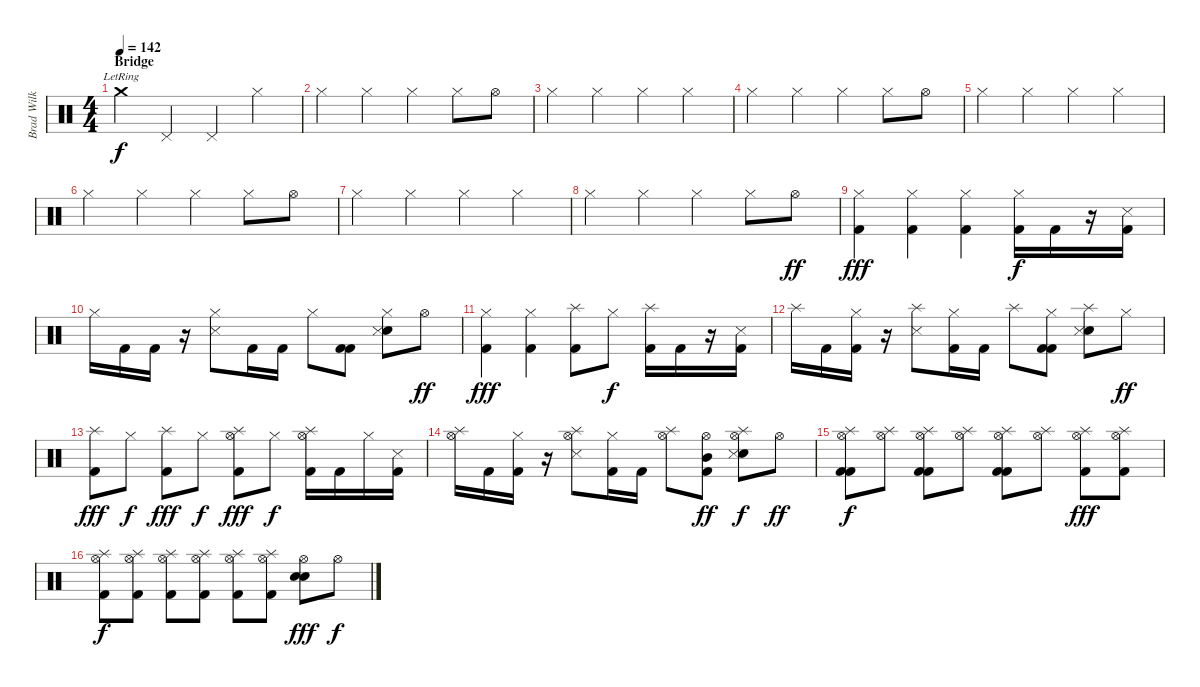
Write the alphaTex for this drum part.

\track ("Brad Wilk" "Brad Wilk") {instrument percussion}
\staff {score}
\articulation defaults
\ts (4 4)
\section ("" "Bridge")
\tempo 142
\clef neutral
\ks c "Crash medium (hit)"{lr}.4{dy f} "Pedal Hi-Hat (hit)".4 "Pedal Hi-Hat (hit)".4 "Hi-Hat (closed)".4
|
"Hi-Hat (closed)".4 "Hi-Hat (closed)".4 "Hi-Hat (closed)".4 "Hi-Hat (closed)".8 "Hi-Hat (open)".8 |
"Hi-Hat (closed)".4 "Hi-Hat (closed)".4 "Hi-Hat (closed)".4 "Hi-Hat (closed)".4 |
"Hi-Hat (closed)".4 "Hi-Hat (closed)".4 "Hi-Hat (closed)".4 "Hi-Hat (closed)".8 "Hi-Hat (open)".8 |
"Hi-Hat (closed)".4 "Hi-Hat (closed)".4 "Hi-Hat (closed)".4 "Hi-Hat (closed)".4 |
"Hi-Hat (closed)".4 "Hi-Hat (closed)".4 "Hi-Hat (closed)".4 "Hi-Hat (closed)".8 "Hi-Hat (open)".8 |
"Hi-Hat (closed)".4 "Hi-Hat (closed)".4 "Hi-Hat (closed)".4 "Hi-Hat (closed)".4 |
"Hi-Hat (closed)".4 "Hi-Hat (closed)".4 "Hi-Hat (closed)".4 "Hi-Hat (closed)".8 "Hi-Hat (open)".8{dy ff} |
("Hi-Hat (closed)" "Kick (hit) 2").4{dy fff} ("Hi-Hat (closed)" "Kick (hit) 2").4 ("Hi-Hat (closed)" "Kick (hit) 2").4 ("Hi-Hat (closed)" "Kick (hit) 2").16{dy f} "Kick (hit) 2".16 r.16 ("Metronome (hit)" "Kick (hit) 2").16 |
"Hi-Hat (closed)".16 "Kick (hit) 2".16 "Kick (hit) 2".16 r.16 ("Hi-Hat (closed)" "Metronome (hit)").8 "Kick (hit) 2".16 "Kick (hit) 2".16 "Hi-Hat (closed)".8 ("Kick (hit) 2" "Kick (hit) 2").8 ("Hi-Hat (closed)" "Electric Snare (hit)" "Metronome (hit)").8 "Hi-Hat (open)".8{dy ff} |
("Hi-Hat (closed)" "Kick (hit) 2").4{dy fff} ("Hi-Hat (closed)" "Kick (hit) 2").4 ("Splash (hit)" "Kick (hit) 2").8 "Hi-Hat (closed)".8{dy f} ("Splash (hit)" "Kick (hit) 2").16 "Kick (hit) 2".16 r.16 ("Metronome (hit)" "Kick (hit) 2").16 |
"Splash (hit)".16 "Kick (hit) 2".16 ("Hi-Hat (closed)" "Kick (hit) 2").16 r.16 ("Splash (hit)" "Metronome (hit)").8 ("Hi-Hat (closed)" "Kick (hit) 2").16 "Kick (hit) 2".16 "Splash (hit)".8 ("Hi-Hat (closed)" "Kick (hit) 2" "Kick (hit) 2").8 ("Splash (hit)" "Electric Snare (hit)" "Metronome (hit)").8 "Hi-Hat (closed)".8{dy ff} |
("Splash (hit)" "Kick (hit) 2").8{dy fff} "Hi-Hat (closed)".8{dy f} ("Splash (hit)" "Kick (hit) 2").8{dy fff} "Hi-Hat (closed)".8{dy f} ("Splash (hit)" "Hi-Hat (open)" "Kick (hit) 2").8{dy fff} "Hi-Hat (closed)".8{dy f} ("Splash (hit)" "Hi-Hat (open)" "Kick (hit) 2").16 "Kick (hit) 2".16 "Hi-Hat (closed)".16 ("Metronome (hit)" "Kick (hit) 2").16 |
("Splash (hit)" "Hi-Hat (open)").16 "Kick (hit) 2".16 ("Hi-Hat (closed)" "Kick (hit) 2").16 r.16 ("Splash (hit)" "Hi-Hat (open)" "Metronome (hit)").8 ("Hi-Hat (closed)" "Kick (hit) 2").16 "Kick (hit) 2".16 ("Splash (hit)" "Hi-Hat (open)").8 ("Hi-Hat (open)" "Mid Tom (hit)" "Kick (hit) 2").8{dy ff} ("Splash (hit)" "Hi-Hat (open)" "Electric Snare (hit)" "Metronome (hit)").8{dy f} "Hi-Hat (open)".8{dy ff} |
("Splash (hit)" "Hi-Hat (open)" "Kick (hit) 2" "Kick (hit) 2").8{dy f} ("Splash (hit)" "Hi-Hat (open)").8 ("Splash (hit)" "Hi-Hat (open)" "Kick (hit) 2" "Kick (hit) 2").8 ("Splash (hit)" "Hi-Hat (open)").8 ("Splash (hit)" "Hi-Hat (open)" "Kick (hit) 2" "Kick (hit) 2").8 ("Splash (hit)" "Hi-Hat (open)").8 ("Splash (hit)" "Hi-Hat (open)" "Kick (hit) 2").8{dy fff} ("Splash (hit)" "Hi-Hat (open)" "Kick (hit) 2").8 |
("Splash (hit)" "Hi-Hat (open)" "Kick (hit) 2").8{dy f} ("Splash (hit)" "Hi-Hat (open)" "Kick (hit) 2").8 ("Splash (hit)" "Hi-Hat (open)" "Kick (hit) 2").8 ("Splash (hit)" "Hi-Hat (open)" "Kick (hit) 2").8 ("Splash (hit)" "Hi-Hat (open)" "Kick (hit) 2").8 ("Splash (hit)" "Hi-Hat (open)" "Kick (hit) 2").8 ("Hi-Hat (open)" "Electric Snare (hit)" "Electric Snare (hit)").8{dy fff} "Hi-Hat (open)".8{dy f}
